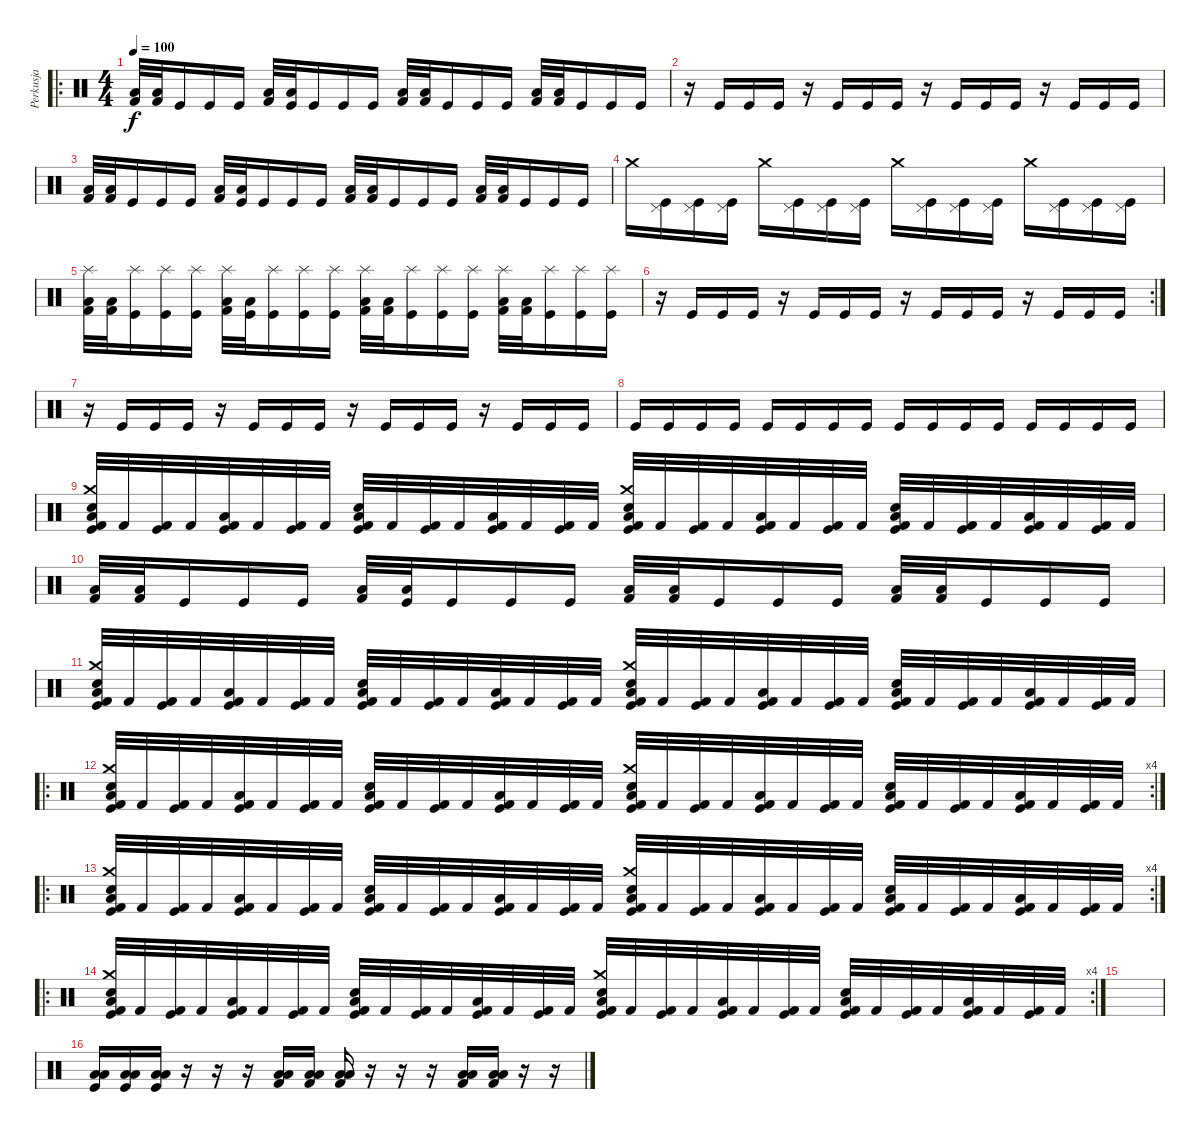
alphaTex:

\track ("Perkusja" "Perkusja") {instrument percussion}
\staff {score}
\articulation defaults
\ro
\ts (4 4)
\tempo 100
\clef neutral
\ks c
("Low Tom (hit)" "Kick (hit) 2").32{dy f} ("Low Tom (hit)" "Kick (hit) 2").32 "Kick (hit)".16 "Kick (hit)".16 "Kick (hit)".16 ("Low Tom (hit)" "Kick (hit) 2").32 ("Low Tom (hit)" "Kick (hit)").32 "Kick (hit)".16 "Kick (hit)".16 "Kick (hit)".16 ("Low Tom (hit)" "Kick (hit) 2").32 ("Low Tom (hit)" "Kick (hit) 2").32 "Kick (hit)".16 "Kick (hit)".16 "Kick (hit)".16 ("Low Tom (hit)" "Kick (hit) 2").32 ("Low Tom (hit)" "Kick (hit) 2").32 "Kick (hit)".16 "Kick (hit)".16 "Kick (hit)".16 |
r.16 "Kick (hit)".16 "Kick (hit)".16 "Kick (hit)".16 r.16 "Kick (hit)".16 "Kick (hit)".16 "Kick (hit)".16 r.16 "Kick (hit)".16 "Kick (hit)".16 "Kick (hit)".16 r.16 "Kick (hit)".16 "Kick (hit)".16 "Kick (hit)".16 |
("Low Tom (hit)" "Kick (hit) 2").32 ("Low Tom (hit)" "Kick (hit) 2").32 "Kick (hit)".16 "Kick (hit)".16 "Kick (hit)".16 ("Low Tom (hit)" "Kick (hit) 2").32 ("Low Tom (hit)" "Kick (hit)").32 "Kick (hit)".16 "Kick (hit)".16 "Kick (hit)".16 ("Low Tom (hit)" "Kick (hit) 2").32 ("Low Tom (hit)" "Kick (hit) 2").32 "Kick (hit)".16 "Kick (hit)".16 "Kick (hit)".16 ("Low Tom (hit)" "Kick (hit) 2").32 ("Low Tom (hit)" "Kick (hit) 2").32 "Kick (hit)".16 "Kick (hit)".16 "Kick (hit)".16 |
"Crash medium (hit)".16 ("Pedal Hi-Hat (hit)" "Kick (hit)").16 ("Pedal Hi-Hat (hit)" "Kick (hit)").16 ("Pedal Hi-Hat (hit)" "Kick (hit)").16 "Crash medium (hit)".16 ("Pedal Hi-Hat (hit)" "Kick (hit)").16 ("Pedal Hi-Hat (hit)" "Kick (hit)").16 ("Pedal Hi-Hat (hit)" "Kick (hit)").16 "Crash medium (hit)".16 ("Pedal Hi-Hat (hit)" "Kick (hit)").16 ("Pedal Hi-Hat (hit)" "Kick (hit)").16 ("Pedal Hi-Hat (hit)" "Kick (hit)").16 "Crash medium (hit)".16 ("Pedal Hi-Hat (hit)" "Kick (hit)").16 ("Pedal Hi-Hat (hit)" "Kick (hit)").16 ("Pedal Hi-Hat (hit)" "Kick (hit)").16 |
("Splash (hit)" "Low Tom (hit)" "Kick (hit) 2").32 ("Low Tom (hit)" "Kick (hit) 2").32 ("Splash (hit)" "Kick (hit)").16 ("Splash (hit)" "Kick (hit)").16 ("Splash (hit)" "Kick (hit)").16 ("Splash (hit)" "Low Tom (hit)" "Kick (hit) 2").32 ("Low Tom (hit)" "Kick (hit)").32 ("Splash (hit)" "Kick (hit)").16 ("Splash (hit)" "Kick (hit)").16 ("Splash (hit)" "Kick (hit)").16 ("Splash (hit)" "Low Tom (hit)" "Kick (hit) 2").32 ("Low Tom (hit)" "Kick (hit) 2").32 ("Splash (hit)" "Kick (hit)").16 ("Splash (hit)" "Kick (hit)").16 ("Splash (hit)" "Kick (hit)").16 ("Splash (hit)" "Low Tom (hit)" "Kick (hit) 2").32 ("Low Tom (hit)" "Kick (hit) 2").32 ("Splash (hit)" "Kick (hit)").16 ("Splash (hit)" "Kick (hit)").16 ("Splash (hit)" "Kick (hit)").16 |
\rc 2
r.16 "Kick (hit)".16 "Kick (hit)".16 "Kick (hit)".16 r.16 "Kick (hit)".16 "Kick (hit)".16 "Kick (hit)".16 r.16 "Kick (hit)".16 "Kick (hit)".16 "Kick (hit)".16 r.16 "Kick (hit)".16 "Kick (hit)".16 "Kick (hit)".16 |
r.16 "Kick (hit)".16 "Kick (hit)".16 "Kick (hit)".16 r.16 "Kick (hit)".16 "Kick (hit)".16 "Kick (hit)".16 r.16 "Kick (hit)".16 "Kick (hit)".16 "Kick (hit)".16 r.16 "Kick (hit)".16 "Kick (hit)".16 "Kick (hit)".16 |
"Kick (hit)".16 "Kick (hit)".16 "Kick (hit)".16 "Kick (hit)".16 "Kick (hit)".16 "Kick (hit)".16 "Kick (hit)".16 "Kick (hit)".16 "Kick (hit)".16 "Kick (hit)".16 "Kick (hit)".16 "Kick (hit)".16 "Kick (hit)".16 "Kick (hit)".16 "Kick (hit)".16 "Kick (hit)".16 |
("Crash medium (hit)" "Electric Snare (hit)" "Low Tom (hit)" "Kick (hit)" "Kick (hit) 2").32 "Kick (hit) 2".32 ("Kick (hit)" "Kick (hit) 2").32 "Kick (hit) 2".32 ("Low Tom (hit)" "Kick (hit)" "Kick (hit) 2").32 "Kick (hit) 2".32 ("Kick (hit)" "Kick (hit) 2").32 "Kick (hit) 2".32 ("Electric Snare (hit)" "Low Tom (hit)" "Kick (hit)" "Kick (hit) 2").32 "Kick (hit) 2".32 ("Kick (hit)" "Kick (hit) 2").32 "Kick (hit) 2".32 ("Low Tom (hit)" "Kick (hit)" "Kick (hit) 2").32 "Kick (hit) 2".32 ("Kick (hit)" "Kick (hit) 2").32 "Kick (hit) 2".32 ("Crash medium (hit)" "Electric Snare (hit)" "Low Tom (hit)" "Kick (hit)" "Kick (hit) 2").32 "Kick (hit) 2".32 ("Kick (hit)" "Kick (hit) 2").32 "Kick (hit) 2".32 ("Low Tom (hit)" "Kick (hit)" "Kick (hit) 2").32 "Kick (hit) 2".32 ("Kick (hit)" "Kick (hit) 2").32 "Kick (hit) 2".32 ("Electric Snare (hit)" "Low Tom (hit)" "Kick (hit)" "Kick (hit) 2").32 "Kick (hit) 2".32 ("Kick (hit)" "Kick (hit) 2").32 "Kick (hit) 2".32 ("Low Tom (hit)" "Kick (hit)" "Kick (hit) 2").32 "Kick (hit) 2".32 ("Kick (hit)" "Kick (hit) 2").32 "Kick (hit) 2".32 |
("Low Tom (hit)" "Kick (hit) 2").32 ("Low Tom (hit)" "Kick (hit) 2").32 "Kick (hit)".16 "Kick (hit)".16 "Kick (hit)".16 ("Low Tom (hit)" "Kick (hit) 2").32 ("Low Tom (hit)" "Kick (hit)").32 "Kick (hit)".16 "Kick (hit)".16 "Kick (hit)".16 ("Low Tom (hit)" "Kick (hit) 2").32 ("Low Tom (hit)" "Kick (hit) 2").32 "Kick (hit)".16 "Kick (hit)".16 "Kick (hit)".16 ("Low Tom (hit)" "Kick (hit) 2").32 ("Low Tom (hit)" "Kick (hit) 2").32 "Kick (hit)".16 "Kick (hit)".16 "Kick (hit)".16 |
("Crash medium (hit)" "Electric Snare (hit)" "Low Tom (hit)" "Kick (hit)" "Kick (hit) 2").32 "Kick (hit) 2".32 ("Kick (hit)" "Kick (hit) 2").32 "Kick (hit) 2".32 ("Low Tom (hit)" "Kick (hit)" "Kick (hit) 2").32 "Kick (hit) 2".32 ("Kick (hit)" "Kick (hit) 2").32 "Kick (hit) 2".32 ("Electric Snare (hit)" "Low Tom (hit)" "Kick (hit)" "Kick (hit) 2").32 "Kick (hit) 2".32 ("Kick (hit)" "Kick (hit) 2").32 "Kick (hit) 2".32 ("Low Tom (hit)" "Kick (hit)" "Kick (hit) 2").32 "Kick (hit) 2".32 ("Kick (hit)" "Kick (hit) 2").32 "Kick (hit) 2".32 ("Crash medium (hit)" "Electric Snare (hit)" "Low Tom (hit)" "Kick (hit)" "Kick (hit) 2").32 "Kick (hit) 2".32 ("Kick (hit)" "Kick (hit) 2").32 "Kick (hit) 2".32 ("Low Tom (hit)" "Kick (hit)" "Kick (hit) 2").32 "Kick (hit) 2".32 ("Kick (hit)" "Kick (hit) 2").32 "Kick (hit) 2".32 ("Electric Snare (hit)" "Low Tom (hit)" "Kick (hit)" "Kick (hit) 2").32 "Kick (hit) 2".32 ("Kick (hit)" "Kick (hit) 2").32 "Kick (hit) 2".32 ("Low Tom (hit)" "Kick (hit)" "Kick (hit) 2").32 "Kick (hit) 2".32 ("Kick (hit)" "Kick (hit) 2").32 "Kick (hit) 2".32 |
\ro
\rc 4
("Crash medium (hit)" "Electric Snare (hit)" "Low Tom (hit)" "Kick (hit)" "Kick (hit) 2").32 "Kick (hit) 2".32 ("Kick (hit)" "Kick (hit) 2").32 "Kick (hit) 2".32 ("Low Tom (hit)" "Kick (hit)" "Kick (hit) 2").32 "Kick (hit) 2".32 ("Kick (hit)" "Kick (hit) 2").32 "Kick (hit) 2".32 ("Electric Snare (hit)" "Low Tom (hit)" "Kick (hit)" "Kick (hit) 2").32 "Kick (hit) 2".32 ("Kick (hit)" "Kick (hit) 2").32 "Kick (hit) 2".32 ("Low Tom (hit)" "Kick (hit)" "Kick (hit) 2").32 "Kick (hit) 2".32 ("Kick (hit)" "Kick (hit) 2").32 "Kick (hit) 2".32 ("Crash medium (hit)" "Electric Snare (hit)" "Low Tom (hit)" "Kick (hit)" "Kick (hit) 2").32 "Kick (hit) 2".32 ("Kick (hit)" "Kick (hit) 2").32 "Kick (hit) 2".32 ("Low Tom (hit)" "Kick (hit)" "Kick (hit) 2").32 "Kick (hit) 2".32 ("Kick (hit)" "Kick (hit) 2").32 "Kick (hit) 2".32 ("Electric Snare (hit)" "Low Tom (hit)" "Kick (hit)" "Kick (hit) 2").32 "Kick (hit) 2".32 ("Kick (hit)" "Kick (hit) 2").32 "Kick (hit) 2".32 ("Low Tom (hit)" "Kick (hit)" "Kick (hit) 2").32 "Kick (hit) 2".32 ("Kick (hit)" "Kick (hit) 2").32 "Kick (hit) 2".32 |
\ro
\rc 4
("Crash medium (hit)" "Electric Snare (hit)" "Low Tom (hit)" "Kick (hit)" "Kick (hit) 2").32 "Kick (hit) 2".32 ("Kick (hit)" "Kick (hit) 2").32 "Kick (hit) 2".32 ("Low Tom (hit)" "Kick (hit)" "Kick (hit) 2").32 "Kick (hit) 2".32 ("Kick (hit)" "Kick (hit) 2").32 "Kick (hit) 2".32 ("Electric Snare (hit)" "Low Tom (hit)" "Kick (hit)" "Kick (hit) 2").32 "Kick (hit) 2".32 ("Kick (hit)" "Kick (hit) 2").32 "Kick (hit) 2".32 ("Low Tom (hit)" "Kick (hit)" "Kick (hit) 2").32 "Kick (hit) 2".32 ("Kick (hit)" "Kick (hit) 2").32 "Kick (hit) 2".32 ("Crash medium (hit)" "Electric Snare (hit)" "Low Tom (hit)" "Kick (hit)" "Kick (hit) 2").32 "Kick (hit) 2".32 ("Kick (hit)" "Kick (hit) 2").32 "Kick (hit) 2".32 ("Low Tom (hit)" "Kick (hit)" "Kick (hit) 2").32 "Kick (hit) 2".32 ("Kick (hit)" "Kick (hit) 2").32 "Kick (hit) 2".32 ("Electric Snare (hit)" "Low Tom (hit)" "Kick (hit)" "Kick (hit) 2").32 "Kick (hit) 2".32 ("Kick (hit)" "Kick (hit) 2").32 "Kick (hit) 2".32 ("Low Tom (hit)" "Kick (hit)" "Kick (hit) 2").32 "Kick (hit) 2".32 ("Kick (hit)" "Kick (hit) 2").32 "Kick (hit) 2".32 |
\ro
\rc 4
("Crash medium (hit)" "Electric Snare (hit)" "Low Tom (hit)" "Kick (hit)" "Kick (hit) 2").32 "Kick (hit) 2".32 ("Kick (hit)" "Kick (hit) 2").32 "Kick (hit) 2".32 ("Low Tom (hit)" "Kick (hit)" "Kick (hit) 2").32 "Kick (hit) 2".32 ("Kick (hit)" "Kick (hit) 2").32 "Kick (hit) 2".32 ("Electric Snare (hit)" "Low Tom (hit)" "Kick (hit)" "Kick (hit) 2").32 "Kick (hit) 2".32 ("Kick (hit)" "Kick (hit) 2").32 "Kick (hit) 2".32 ("Low Tom (hit)" "Kick (hit)" "Kick (hit) 2").32 "Kick (hit) 2".32 ("Kick (hit)" "Kick (hit) 2").32 "Kick (hit) 2".32 ("Crash medium (hit)" "Electric Snare (hit)" "Low Tom (hit)" "Kick (hit)" "Kick (hit) 2").32 "Kick (hit) 2".32 ("Kick (hit)" "Kick (hit) 2").32 "Kick (hit) 2".32 ("Low Tom (hit)" "Kick (hit)" "Kick (hit) 2").32 "Kick (hit) 2".32 ("Kick (hit)" "Kick (hit) 2").32 "Kick (hit) 2".32 ("Electric Snare (hit)" "Low Tom (hit)" "Kick (hit)" "Kick (hit) 2").32 "Kick (hit) 2".32 ("Kick (hit)" "Kick (hit) 2").32 "Kick (hit) 2".32 ("Low Tom (hit)" "Kick (hit)" "Kick (hit) 2").32 "Kick (hit) 2".32 ("Kick (hit)" "Kick (hit) 2").32 "Kick (hit) 2".32 |
|
("Low Tom (hit)" "Low Tom (hit)" "Kick (hit)").16 ("Low Tom (hit)" "Low Tom (hit)" "Kick (hit)").16 ("Low Tom (hit)" "Low Tom (hit)" "Kick (hit)").16 r.16 r.16 r.16 ("Low Tom (hit)" "Low Tom (hit)" "Kick (hit) 2").16 ("Low Tom (hit)" "Low Tom (hit)" "Kick (hit) 2").16 ("Low Tom (hit)" "Low Tom (hit)" "Kick (hit) 2").16 r.16 r.16 r.16 ("Low Tom (hit)" "Low Tom (hit)" "Kick (hit) 2").16 ("Low Tom (hit)" "Low Tom (hit)" "Kick (hit) 2").16 r.16 r.16
